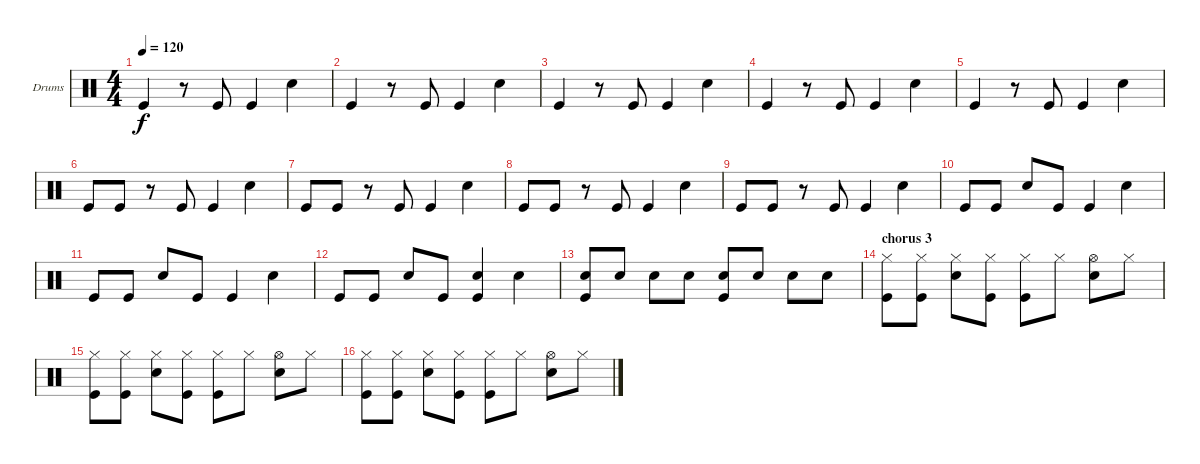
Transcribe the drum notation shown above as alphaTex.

\bracketExtendMode groupsimilarinstruments
\firstSystemTrackNameOrientation horizontal
\otherSystemsTrackNameOrientation horizontal
\track ("Drumkit" "Drums") {instrument percussion}
\staff {score}
\articulation defaults
\ts (4 4)
\tempo 120
\clef neutral
\ks c "Kick (hit)".4{dy f}
r.8 "Kick (hit)".8 "Kick (hit)".4 "Snare (hit) 2".4 |
"Kick (hit)".4 r.8 "Kick (hit)".8 "Kick (hit)".4 "Snare (hit) 2".4 |
"Kick (hit)".4 r.8 "Kick (hit)".8 "Kick (hit)".4 "Snare (hit) 2".4 |
"Kick (hit)".4 r.8 "Kick (hit)".8 "Kick (hit)".4 "Snare (hit) 2".4 |
"Kick (hit)".4 r.8 "Kick (hit)".8 "Kick (hit)".4 "Snare (hit) 2".4 |
"Kick (hit)".8 "Kick (hit)".8 r.8 "Kick (hit)".8 "Kick (hit)".4 "Snare (hit) 2".4 |
"Kick (hit)".8 "Kick (hit)".8 r.8 "Kick (hit)".8 "Kick (hit)".4 "Snare (hit) 2".4 |
"Kick (hit)".8 "Kick (hit)".8 r.8 "Kick (hit)".8 "Kick (hit)".4 "Snare (hit) 2".4 |
"Kick (hit)".8 "Kick (hit)".8 r.8 "Kick (hit)".8 "Kick (hit)".4 "Snare (hit) 2".4 |
"Kick (hit)".8 "Kick (hit)".8 "Snare (hit) 2".8 "Kick (hit)".8 "Kick (hit)".4 "Snare (hit) 2".4 |
"Kick (hit)".8 "Kick (hit)".8 "Snare (hit) 2".8 "Kick (hit)".8 "Kick (hit)".4 "Snare (hit) 2".4 |
"Kick (hit)".8 "Kick (hit)".8 "Snare (hit) 2".8 "Kick (hit)".8 ("Snare (hit) 2" "Kick (hit)").4 "Snare (hit) 2".4 |
("Snare (hit) 2" "Kick (hit)").8 "Snare (hit) 2".8 "Snare (hit) 2".8 "Snare (hit) 2".8 ("Snare (hit) 2" "Kick (hit)").8 "Snare (hit) 2".8 "Snare (hit) 2".8 "Snare (hit) 2".8 |
\section ("" "chorus 3")
("Kick (hit)" "Hi-Hat (closed)").8 ("Kick (hit)" "Hi-Hat (closed)").8 ("Snare (hit) 2" "Hi-Hat (closed)").8 ("Kick (hit)" "Hi-Hat (closed)").8 ("Kick (hit)" "Hi-Hat (closed)").8 "Hi-Hat (closed)".8 ("Snare (hit) 2" "Hi-Hat (open)").8 "Hi-Hat (closed)".8 |
("Kick (hit)" "Hi-Hat (closed)").8 ("Kick (hit)" "Hi-Hat (closed)").8 ("Snare (hit) 2" "Hi-Hat (closed)").8 ("Kick (hit)" "Hi-Hat (closed)").8 ("Kick (hit)" "Hi-Hat (closed)").8 "Hi-Hat (closed)".8 ("Snare (hit) 2" "Hi-Hat (open)").8 "Hi-Hat (closed)".8 |
("Kick (hit)" "Hi-Hat (closed)").8 ("Kick (hit)" "Hi-Hat (closed)").8 ("Snare (hit) 2" "Hi-Hat (closed)").8 ("Kick (hit)" "Hi-Hat (closed)").8 ("Kick (hit)" "Hi-Hat (closed)").8 "Hi-Hat (closed)".8 ("Snare (hit) 2" "Hi-Hat (open)").8 "Hi-Hat (closed)".8
